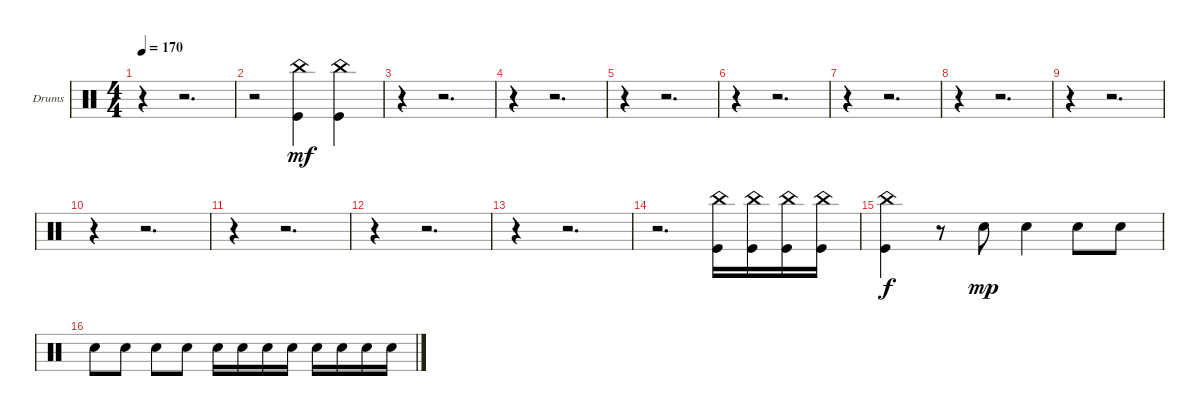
\bracketExtendMode groupsimilarinstruments
\firstSystemTrackNameOrientation horizontal
\otherSystemsTrackNameOrientation horizontal
\track ("Drumkit" "Drums") {instrument percussion}
\staff {score}
\articulation defaults
\ts (4 4)
\tempo 170
\clef neutral
\ks c
r.4{dy mf} r.2{d} |
r.2 ("China (hit)" "Kick (hit)").4 ("Kick (hit)" "China (hit)").4 |
r.4 r.2{d} |
r.4 r.2{d} |
r.4 r.2{d} |
r.4 r.2{d} |
r.4 r.2{d} |
r.4 r.2{d} |
r.4 r.2{d} |
r.4 r.2{d} |
r.4 r.2{d} |
r.4 r.2{d} |
r.4 r.2{d} |
r.2{d} ("China (hit)" "Kick (hit)").16 ("China (hit)" "Kick (hit)").16 ("China (hit)" "Kick (hit)").16 ("China (hit)" "Kick (hit)").16 |
("Kick (hit)" "China (hit)").4{dy f} r.8 "Snare (hit) 2".8{dy mp} "Snare (hit) 2".4 "Snare (hit) 2".8 "Snare (hit) 2".8 |
"Snare (hit) 2".8 "Snare (hit) 2".8 "Snare (hit) 2".8 "Snare (hit) 2".8 "Snare (hit) 2".16 "Snare (hit) 2".16 "Snare (hit) 2".16 "Snare (hit) 2".16 "Snare (hit) 2".16 "Snare (hit) 2".16 "Snare (hit) 2".16 "Snare (hit) 2".16
